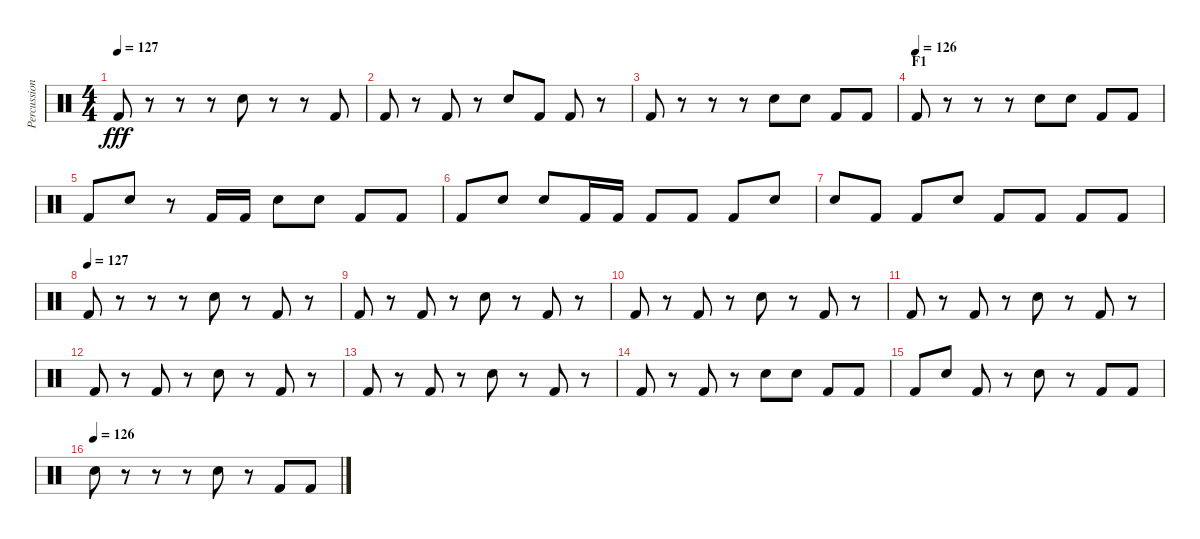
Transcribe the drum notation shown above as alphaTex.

\track ("Percussion" "Percussion") {instrument percussion}
\staff {score}
\articulation defaults
\ts (4 4)
\tempo 127
\clef neutral
\ks c "Kick (hit) 2".8{dy fff}
r.8 r.8 r.8 "Electric Snare (hit)".8 r.8 r.8 "Kick (hit) 2".8 |
"Kick (hit) 2".8 r.8 "Kick (hit) 2".8 r.8 "Electric Snare (hit)".8 "Kick (hit) 2".8 "Kick (hit) 2".8 r.8 |
"Kick (hit) 2".8 r.8 r.8 r.8 "Electric Snare (hit)".8 "Electric Snare (hit)".8 "Kick (hit) 2".8 "Kick (hit) 2".8 |
\section ("" "F1")
\tempo (126)
"Kick (hit) 2".8 r.8 r.8 r.8 "Electric Snare (hit)".8 "Electric Snare (hit)".8 "Kick (hit) 2".8 "Kick (hit) 2".8 |
"Kick (hit) 2".8 "Electric Snare (hit)".8 r.8 "Kick (hit) 2".16 "Kick (hit) 2".16 "Electric Snare (hit)".8 "Electric Snare (hit)".8 "Kick (hit) 2".8 "Kick (hit) 2".8 |
"Kick (hit) 2".8 "Electric Snare (hit)".8 "Electric Snare (hit)".8 "Kick (hit) 2".16 "Kick (hit) 2".16 "Kick (hit) 2".8 "Kick (hit) 2".8 "Kick (hit) 2".8 "Electric Snare (hit)".8 |
"Electric Snare (hit)".8 "Kick (hit) 2".8 "Kick (hit) 2".8 "Electric Snare (hit)".8 "Kick (hit) 2".8 "Kick (hit) 2".8 "Kick (hit) 2".8 "Kick (hit) 2".8 |
\tempo (127)
"Kick (hit) 2".8 r.8 r.8 r.8 "Electric Snare (hit)".8 r.8 "Kick (hit) 2".8 r.8 |
"Kick (hit) 2".8 r.8 "Kick (hit) 2".8 r.8 "Electric Snare (hit)".8 r.8 "Kick (hit) 2".8 r.8 |
"Kick (hit) 2".8 r.8 "Kick (hit) 2".8 r.8 "Electric Snare (hit)".8 r.8 "Kick (hit) 2".8 r.8 |
"Kick (hit) 2".8 r.8 "Kick (hit) 2".8 r.8 "Electric Snare (hit)".8 r.8 "Kick (hit) 2".8 r.8 |
"Kick (hit) 2".8 r.8 "Kick (hit) 2".8 r.8 "Electric Snare (hit)".8 r.8 "Kick (hit) 2".8 r.8 |
"Kick (hit) 2".8 r.8 "Kick (hit) 2".8 r.8 "Electric Snare (hit)".8 r.8 "Kick (hit) 2".8 r.8 |
"Kick (hit) 2".8 r.8 "Kick (hit) 2".8 r.8 "Electric Snare (hit)".8 "Electric Snare (hit)".8 "Kick (hit) 2".8 "Kick (hit) 2".8 |
"Kick (hit) 2".8 "Electric Snare (hit)".8 "Kick (hit) 2".8 r.8 "Electric Snare (hit)".8 r.8 "Kick (hit) 2".8 "Kick (hit) 2".8 |
\tempo (126)
"Electric Snare (hit)".8 r.8 r.8 r.8 "Electric Snare (hit)".8 r.8 "Kick (hit) 2".8 "Kick (hit) 2".8
